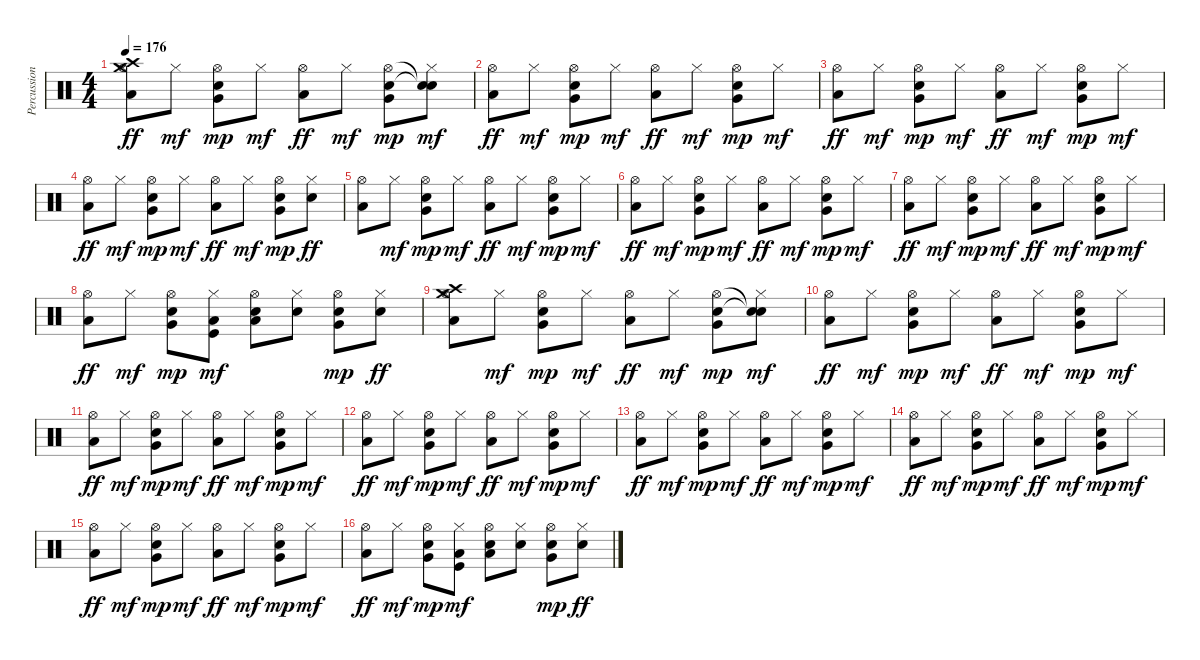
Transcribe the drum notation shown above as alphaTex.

\track ("Percussions" "Percussion") {instrument percussion}
\staff {score}
\articulation defaults
\ts (4 4)
\tempo 176
\clef neutral
\ks c
("Crash high (hit)" "Crash medium (hit)" "Hi-Hat (open)" "Low Floor Tom (hit)").8{dy ff} "Hi-Hat (closed)".8{dy mf} ("Hi-Hat (open)" "Electric Snare (hit)" "Very Low Tom (hit)").8{dy mp} "Hi-Hat (closed)".8{dy mf} ("Hi-Hat (open)" "Low Floor Tom (hit)").8{dy ff} "Hi-Hat (closed)".8{dy mf} ("Hi-Hat (open)" "Electric Snare (hit)" "Very Low Tom (hit)").8{dy mp} ("Snare (hit)"{t} "Snare (hit)"{t} "Hi-Hat (closed)").8{dy mf} |
("Hi-Hat (open)" "Low Floor Tom (hit)").8{dy ff} "Hi-Hat (closed)".8{dy mf} ("Hi-Hat (open)" "Electric Snare (hit)" "Very Low Tom (hit)").8{dy mp} "Hi-Hat (closed)".8{dy mf} ("Hi-Hat (open)" "Low Floor Tom (hit)").8{dy ff} "Hi-Hat (closed)".8{dy mf} ("Hi-Hat (open)" "Electric Snare (hit)" "Very Low Tom (hit)").8{dy mp} "Hi-Hat (closed)".8{dy mf} |
("Hi-Hat (open)" "Low Floor Tom (hit)").8{dy ff} "Hi-Hat (closed)".8{dy mf} ("Hi-Hat (open)" "Electric Snare (hit)" "Very Low Tom (hit)").8{dy mp} "Hi-Hat (closed)".8{dy mf} ("Hi-Hat (open)" "Low Floor Tom (hit)").8{dy ff} "Hi-Hat (closed)".8{dy mf} ("Hi-Hat (open)" "Electric Snare (hit)" "Very Low Tom (hit)").8{dy mp} "Hi-Hat (closed)".8{dy mf} |
("Hi-Hat (open)" "Low Floor Tom (hit)").8{dy ff} "Hi-Hat (closed)".8{dy mf} ("Hi-Hat (open)" "Electric Snare (hit)" "Very Low Tom (hit)").8{dy mp} "Hi-Hat (closed)".8{dy mf} ("Hi-Hat (open)" "Low Floor Tom (hit)").8{dy ff} "Hi-Hat (closed)".8{dy mf} ("Hi-Hat (open)" "Very Low Tom (hit)" "Electric Snare (hit)").8{dy mp} ("Hi-Hat (closed)" "Electric Snare (hit)").8{dy ff} |
("Hi-Hat (open)" "Low Floor Tom (hit)").8 "Hi-Hat (closed)".8{dy mf} ("Hi-Hat (open)" "Electric Snare (hit)" "Very Low Tom (hit)").8{dy mp} "Hi-Hat (closed)".8{dy mf} ("Hi-Hat (open)" "Low Floor Tom (hit)").8{dy ff} "Hi-Hat (closed)".8{dy mf} ("Hi-Hat (open)" "Electric Snare (hit)" "Very Low Tom (hit)").8{dy mp} "Hi-Hat (closed)".8{dy mf} |
("Hi-Hat (open)" "Low Floor Tom (hit)").8{dy ff} "Hi-Hat (closed)".8{dy mf} ("Hi-Hat (open)" "Electric Snare (hit)" "Very Low Tom (hit)").8{dy mp} "Hi-Hat (closed)".8{dy mf} ("Hi-Hat (open)" "Low Floor Tom (hit)").8{dy ff} "Hi-Hat (closed)".8{dy mf} ("Hi-Hat (open)" "Electric Snare (hit)" "Very Low Tom (hit)").8{dy mp} "Hi-Hat (closed)".8{dy mf} |
("Hi-Hat (open)" "Low Floor Tom (hit)").8{dy ff} "Hi-Hat (closed)".8{dy mf} ("Hi-Hat (open)" "Electric Snare (hit)" "Very Low Tom (hit)").8{dy mp} "Hi-Hat (closed)".8{dy mf} ("Hi-Hat (open)" "Low Floor Tom (hit)").8{dy ff} "Hi-Hat (closed)".8{dy mf} ("Hi-Hat (open)" "Electric Snare (hit)" "Very Low Tom (hit)").8{dy mp} "Hi-Hat (closed)".8{dy mf} |
("Hi-Hat (open)" "Low Floor Tom (hit)").8{dy ff} "Hi-Hat (closed)".8{dy mf} ("Hi-Hat (open)" "Electric Snare (hit)" "Very Low Tom (hit)").8{dy mp} ("Hi-Hat (closed)" "Low Floor Tom (hit)" "Kick (hit)").8{dy mf} ("Hi-Hat (open)" "Low Floor Tom (hit)" "Electric Snare (hit)").8 ("Hi-Hat (closed)" "Electric Snare (hit)").8 ("Hi-Hat (open)" "Very Low Tom (hit)" "Electric Snare (hit)").8{dy mp} ("Hi-Hat (closed)" "Electric Snare (hit)").8{dy ff} |
("Crash high (hit)" "Crash medium (hit)" "Hi-Hat (open)" "Low Floor Tom (hit)").8 "Hi-Hat (closed)".8{dy mf} ("Hi-Hat (open)" "Electric Snare (hit)" "Very Low Tom (hit)").8{dy mp} "Hi-Hat (closed)".8{dy mf} ("Hi-Hat (open)" "Low Floor Tom (hit)").8{dy ff} "Hi-Hat (closed)".8{dy mf} ("Hi-Hat (open)" "Electric Snare (hit)" "Very Low Tom (hit)").8{dy mp} ("Snare (hit)"{t} "Snare (hit)"{t} "Hi-Hat (closed)").8{dy mf} |
("Hi-Hat (open)" "Low Floor Tom (hit)").8{dy ff} "Hi-Hat (closed)".8{dy mf} ("Hi-Hat (open)" "Electric Snare (hit)" "Very Low Tom (hit)").8{dy mp} "Hi-Hat (closed)".8{dy mf} ("Hi-Hat (open)" "Low Floor Tom (hit)").8{dy ff} "Hi-Hat (closed)".8{dy mf} ("Hi-Hat (open)" "Electric Snare (hit)" "Very Low Tom (hit)").8{dy mp} "Hi-Hat (closed)".8{dy mf} |
("Hi-Hat (open)" "Low Floor Tom (hit)").8{dy ff} "Hi-Hat (closed)".8{dy mf} ("Hi-Hat (open)" "Electric Snare (hit)" "Very Low Tom (hit)").8{dy mp} "Hi-Hat (closed)".8{dy mf} ("Hi-Hat (open)" "Low Floor Tom (hit)").8{dy ff} "Hi-Hat (closed)".8{dy mf} ("Hi-Hat (open)" "Electric Snare (hit)" "Very Low Tom (hit)").8{dy mp} "Hi-Hat (closed)".8{dy mf} |
("Hi-Hat (open)" "Low Floor Tom (hit)").8{dy ff} "Hi-Hat (closed)".8{dy mf} ("Hi-Hat (open)" "Electric Snare (hit)" "Very Low Tom (hit)").8{dy mp} "Hi-Hat (closed)".8{dy mf} ("Hi-Hat (open)" "Low Floor Tom (hit)").8{dy ff} "Hi-Hat (closed)".8{dy mf} ("Hi-Hat (open)" "Very Low Tom (hit)" "Electric Snare (hit)").8{dy mp} "Hi-Hat (closed)".8{dy mf} |
("Hi-Hat (open)" "Low Floor Tom (hit)").8{dy ff} "Hi-Hat (closed)".8{dy mf} ("Hi-Hat (open)" "Electric Snare (hit)" "Very Low Tom (hit)").8{dy mp} "Hi-Hat (closed)".8{dy mf} ("Hi-Hat (open)" "Low Floor Tom (hit)").8{dy ff} "Hi-Hat (closed)".8{dy mf} ("Hi-Hat (open)" "Electric Snare (hit)" "Very Low Tom (hit)").8{dy mp} "Hi-Hat (closed)".8{dy mf} |
("Hi-Hat (open)" "Low Floor Tom (hit)").8{dy ff} "Hi-Hat (closed)".8{dy mf} ("Hi-Hat (open)" "Electric Snare (hit)" "Very Low Tom (hit)").8{dy mp} "Hi-Hat (closed)".8{dy mf} ("Hi-Hat (open)" "Low Floor Tom (hit)").8{dy ff} "Hi-Hat (closed)".8{dy mf} ("Hi-Hat (open)" "Electric Snare (hit)" "Very Low Tom (hit)").8{dy mp} "Hi-Hat (closed)".8{dy mf} |
("Hi-Hat (open)" "Low Floor Tom (hit)").8{dy ff} "Hi-Hat (closed)".8{dy mf} ("Hi-Hat (open)" "Electric Snare (hit)" "Very Low Tom (hit)").8{dy mp} "Hi-Hat (closed)".8{dy mf} ("Hi-Hat (open)" "Low Floor Tom (hit)").8{dy ff} "Hi-Hat (closed)".8{dy mf} ("Hi-Hat (open)" "Electric Snare (hit)" "Very Low Tom (hit)").8{dy mp} "Hi-Hat (closed)".8{dy mf} |
("Hi-Hat (open)" "Low Floor Tom (hit)").8{dy ff} "Hi-Hat (closed)".8{dy mf} ("Hi-Hat (open)" "Electric Snare (hit)" "Very Low Tom (hit)").8{dy mp} ("Hi-Hat (closed)" "Low Floor Tom (hit)" "Kick (hit)").8{dy mf} ("Hi-Hat (open)" "Low Floor Tom (hit)" "Electric Snare (hit)").8 ("Hi-Hat (closed)" "Electric Snare (hit)").8 ("Hi-Hat (open)" "Very Low Tom (hit)" "Electric Snare (hit)").8{dy mp} ("Hi-Hat (closed)" "Electric Snare (hit)").8{dy ff}
